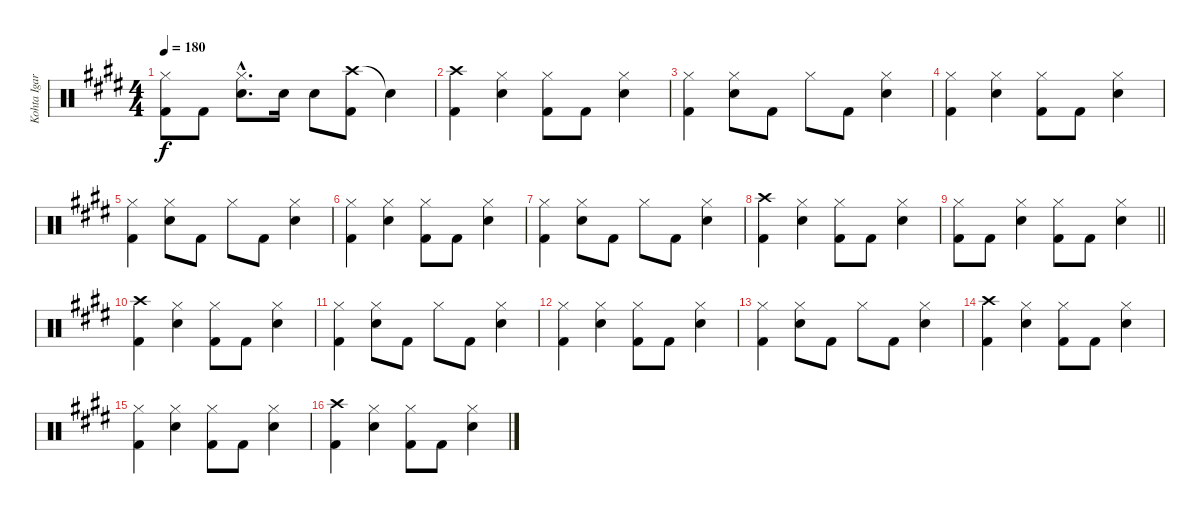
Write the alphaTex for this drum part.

\track ("Kohta Igarashi" "Kohta Igar") {instrument percussion}
\staff {score}
\articulation defaults
\ts (4 4)
\tempo 180
\clef neutral
\ks e
("Hi-Hat (closed)" "Kick (hit) 2").8{dy f} "Kick (hit) 2".8 ("Hi-Hat (closed)"{hac} "Electric Snare (hit)"{hac}).8{d} "Electric Snare (hit)".16 "Electric Snare (hit)".8 ("Crash high (hit)" "Kick (hit) 2").8 "Snare (hit)"{t}.4 |
("Crash high (hit)" "Kick (hit) 2").4 ("Hi-Hat (closed)" "Electric Snare (hit)").4 ("Hi-Hat (closed)" "Kick (hit) 2").8 "Kick (hit) 2".8 ("Hi-Hat (closed)" "Electric Snare (hit)").4 |
("Hi-Hat (closed)" "Kick (hit) 2").4 ("Hi-Hat (closed)" "Electric Snare (hit)").8 "Kick (hit) 2".8 "Hi-Hat (closed)".8 "Kick (hit) 2".8 ("Hi-Hat (closed)" "Electric Snare (hit)").4 |
("Hi-Hat (closed)" "Kick (hit) 2").4 ("Hi-Hat (closed)" "Electric Snare (hit)").4 ("Hi-Hat (closed)" "Kick (hit) 2").8 "Kick (hit) 2".8 ("Hi-Hat (closed)" "Electric Snare (hit)").4 |
("Hi-Hat (closed)" "Kick (hit) 2").4 ("Hi-Hat (closed)" "Electric Snare (hit)").8 "Kick (hit) 2".8 "Hi-Hat (closed)".8 "Kick (hit) 2".8 ("Hi-Hat (closed)" "Electric Snare (hit)").4 |
("Hi-Hat (closed)" "Kick (hit) 2").4 ("Hi-Hat (closed)" "Electric Snare (hit)").4 ("Hi-Hat (closed)" "Kick (hit) 2").8 "Kick (hit) 2".8 ("Hi-Hat (closed)" "Electric Snare (hit)").4 |
("Hi-Hat (closed)" "Kick (hit) 2").4 ("Hi-Hat (closed)" "Electric Snare (hit)").8 "Kick (hit) 2".8 "Hi-Hat (closed)".8 "Kick (hit) 2".8 ("Hi-Hat (closed)" "Electric Snare (hit)").4 |
("Crash high (hit)" "Kick (hit) 2").4 ("Hi-Hat (closed)" "Electric Snare (hit)").4 ("Hi-Hat (closed)" "Kick (hit) 2").8 "Kick (hit) 2".8 ("Hi-Hat (closed)" "Electric Snare (hit)").4 |
\barLineRight lightlight
("Hi-Hat (closed)" "Kick (hit) 2").8 "Kick (hit) 2".8 ("Hi-Hat (closed)" "Electric Snare (hit)").4 ("Hi-Hat (closed)" "Kick (hit) 2").8 "Kick (hit) 2".8 ("Hi-Hat (closed)" "Electric Snare (hit)").4 |
("Crash high (hit)" "Kick (hit) 2").4 ("Hi-Hat (closed)" "Electric Snare (hit)").4 ("Hi-Hat (closed)" "Kick (hit) 2").8 "Kick (hit) 2".8 ("Hi-Hat (closed)" "Electric Snare (hit)").4 |
("Hi-Hat (closed)" "Kick (hit) 2").4 ("Hi-Hat (closed)" "Electric Snare (hit)").8 "Kick (hit) 2".8 "Hi-Hat (closed)".8 "Kick (hit) 2".8 ("Hi-Hat (closed)" "Electric Snare (hit)").4 |
("Hi-Hat (closed)" "Kick (hit) 2").4 ("Hi-Hat (closed)" "Electric Snare (hit)").4 ("Hi-Hat (closed)" "Kick (hit) 2").8 "Kick (hit) 2".8 ("Hi-Hat (closed)" "Electric Snare (hit)").4 |
("Hi-Hat (closed)" "Kick (hit) 2").4 ("Hi-Hat (closed)" "Electric Snare (hit)").8 "Kick (hit) 2".8 "Hi-Hat (closed)".8 "Kick (hit) 2".8 ("Hi-Hat (closed)" "Electric Snare (hit)").4 |
("Crash high (hit)" "Kick (hit) 2").4 ("Hi-Hat (closed)" "Electric Snare (hit)").4 ("Hi-Hat (closed)" "Kick (hit) 2").8 "Kick (hit) 2".8 ("Hi-Hat (closed)" "Electric Snare (hit)").4 |
("Hi-Hat (closed)" "Kick (hit) 2").4 ("Hi-Hat (closed)" "Electric Snare (hit)").4 ("Hi-Hat (closed)" "Kick (hit) 2").8 "Kick (hit) 2".8 ("Hi-Hat (closed)" "Electric Snare (hit)").4 |
("Crash high (hit)" "Kick (hit) 2").4 ("Hi-Hat (closed)" "Electric Snare (hit)").4 ("Hi-Hat (closed)" "Kick (hit) 2").8 "Kick (hit) 2".8 ("Hi-Hat (closed)" "Electric Snare (hit)").4
